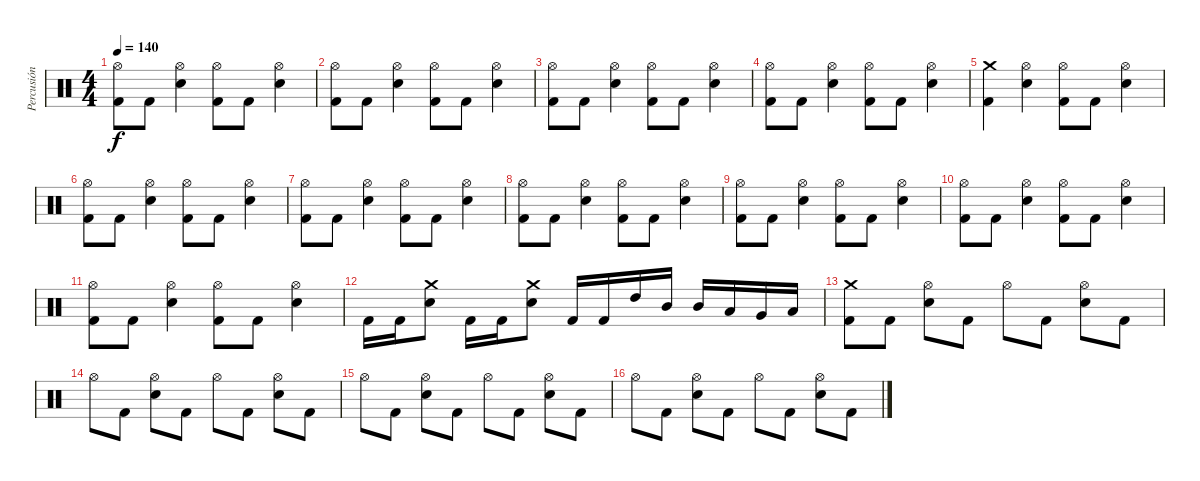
\track ("Percusión" "Percusión") {instrument percussion}
\staff {score}
\articulation defaults
\ts (4 4)
\tempo 140
\clef neutral
\ks c
("Hi-Hat (open)" "Kick (hit) 2").8{dy f} "Kick (hit) 2".8 ("Hi-Hat (open)" "Electric Snare (hit)").4 ("Hi-Hat (open)" "Kick (hit) 2").8 "Kick (hit) 2".8 ("Hi-Hat (open)" "Electric Snare (hit)").4 |
("Hi-Hat (open)" "Kick (hit) 2").8 "Kick (hit) 2".8 ("Hi-Hat (open)" "Electric Snare (hit)").4 ("Hi-Hat (open)" "Kick (hit) 2").8 "Kick (hit) 2".8 ("Hi-Hat (open)" "Electric Snare (hit)").4 |
("Hi-Hat (open)" "Kick (hit) 2").8 "Kick (hit) 2".8 ("Hi-Hat (open)" "Electric Snare (hit)").4 ("Hi-Hat (open)" "Kick (hit) 2").8 "Kick (hit) 2".8 ("Hi-Hat (open)" "Electric Snare (hit)").4 |
("Hi-Hat (open)" "Kick (hit) 2").8 "Kick (hit) 2".8 ("Hi-Hat (open)" "Electric Snare (hit)").4 ("Hi-Hat (open)" "Kick (hit) 2").8 "Kick (hit) 2".8 ("Hi-Hat (open)" "Electric Snare (hit)").4 |
("Crash medium (hit)" "Kick (hit) 2").4 ("Hi-Hat (open)" "Electric Snare (hit)").4 ("Hi-Hat (open)" "Kick (hit) 2").8 "Kick (hit) 2".8 ("Hi-Hat (open)" "Electric Snare (hit)").4 |
("Hi-Hat (open)" "Kick (hit) 2").8 "Kick (hit) 2".8 ("Hi-Hat (open)" "Electric Snare (hit)").4 ("Hi-Hat (open)" "Kick (hit) 2").8 "Kick (hit) 2".8 ("Hi-Hat (open)" "Electric Snare (hit)").4 |
("Hi-Hat (open)" "Kick (hit) 2").8 "Kick (hit) 2".8 ("Hi-Hat (open)" "Electric Snare (hit)").4 ("Hi-Hat (open)" "Kick (hit) 2").8 "Kick (hit) 2".8 ("Hi-Hat (open)" "Electric Snare (hit)").4 |
("Hi-Hat (open)" "Kick (hit) 2").8 "Kick (hit) 2".8 ("Hi-Hat (open)" "Electric Snare (hit)").4 ("Hi-Hat (open)" "Kick (hit) 2").8 "Kick (hit) 2".8 ("Hi-Hat (open)" "Electric Snare (hit)").4 |
("Hi-Hat (open)" "Kick (hit) 2").8 "Kick (hit) 2".8 ("Hi-Hat (open)" "Electric Snare (hit)").4 ("Hi-Hat (open)" "Kick (hit) 2").8 "Kick (hit) 2".8 ("Hi-Hat (open)" "Electric Snare (hit)").4 |
("Hi-Hat (open)" "Kick (hit) 2").8 "Kick (hit) 2".8 ("Hi-Hat (open)" "Electric Snare (hit)").4 ("Hi-Hat (open)" "Kick (hit) 2").8 "Kick (hit) 2".8 ("Hi-Hat (open)" "Electric Snare (hit)").4 |
("Hi-Hat (open)" "Kick (hit) 2").8 "Kick (hit) 2".8 ("Hi-Hat (open)" "Electric Snare (hit)").4 ("Hi-Hat (open)" "Kick (hit) 2").8 "Kick (hit) 2".8 ("Hi-Hat (open)" "Electric Snare (hit)").4 |
"Kick (hit) 2".16 "Kick (hit) 2".16 ("Crash medium (hit)" "Electric Snare (hit)").8 "Kick (hit) 2".16 "Kick (hit) 2".16 ("Crash medium (hit)" "Electric Snare (hit)").8 "Kick (hit) 2".16 "Kick (hit) 2".16 "High Tom (hit)".16 "Mid Tom (hit)".16 "Mid Tom (hit)".16 "Low Tom (hit)".16 "Very Low Tom (hit)".16 "Low Floor Tom (hit)".16 |
("Crash medium (hit)" "Kick (hit) 2").8 "Kick (hit) 2".8 ("Hi-Hat (open)" "Electric Snare (hit)").8 "Kick (hit) 2".8 "Hi-Hat (open)".8 "Kick (hit) 2".8 ("Hi-Hat (open)" "Electric Snare (hit)").8 "Kick (hit) 2".8 |
"Hi-Hat (open)".8 "Kick (hit) 2".8 ("Hi-Hat (open)" "Electric Snare (hit)").8 "Kick (hit) 2".8 "Hi-Hat (open)".8 "Kick (hit) 2".8 ("Hi-Hat (open)" "Electric Snare (hit)").8 "Kick (hit) 2".8 |
"Hi-Hat (open)".8 "Kick (hit) 2".8 ("Hi-Hat (open)" "Electric Snare (hit)").8 "Kick (hit) 2".8 "Hi-Hat (open)".8 "Kick (hit) 2".8 ("Hi-Hat (open)" "Electric Snare (hit)").8 "Kick (hit) 2".8 |
"Hi-Hat (open)".8 "Kick (hit) 2".8 ("Hi-Hat (open)" "Electric Snare (hit)").8 "Kick (hit) 2".8 "Hi-Hat (open)".8 "Kick (hit) 2".8 ("Hi-Hat (open)" "Electric Snare (hit)").8 "Kick (hit) 2".8
